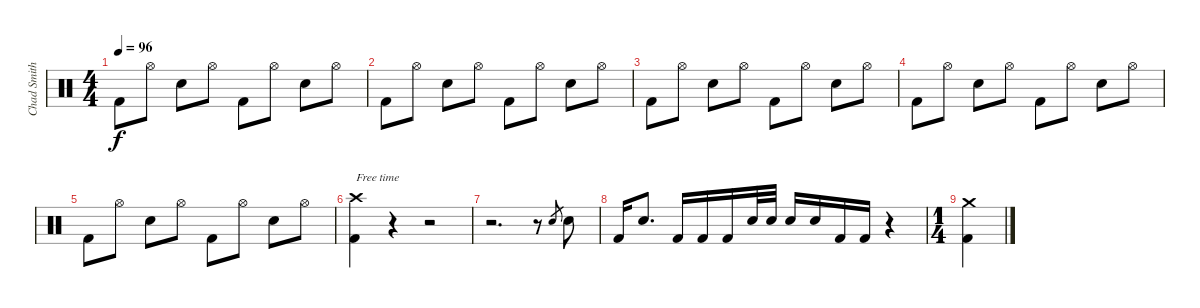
\track ("Chad Smith" "Chad Smith") {instrument percussion}
\staff {score}
\articulation defaults
\ts (4 4)
\tempo 96
\clef neutral
\ks c "Kick (hit) 2".8{dy f} "Hi-Hat (open)".8 "Electric Snare (hit)".8 "Hi-Hat (open)".8 "Kick (hit) 2".8 "Hi-Hat (open)".8 "Electric Snare (hit)".8 "Hi-Hat (open)".8
|
"Kick (hit) 2".8 "Hi-Hat (open)".8 "Electric Snare (hit)".8 "Hi-Hat (open)".8 "Kick (hit) 2".8 "Hi-Hat (open)".8 "Electric Snare (hit)".8 "Hi-Hat (open)".8 |
"Kick (hit) 2".8 "Hi-Hat (open)".8 "Electric Snare (hit)".8 "Hi-Hat (open)".8 "Kick (hit) 2".8 "Hi-Hat (open)".8 "Electric Snare (hit)".8 "Hi-Hat (open)".8 |
"Kick (hit) 2".8 "Hi-Hat (open)".8 "Electric Snare (hit)".8 "Hi-Hat (open)".8 "Kick (hit) 2".8 "Hi-Hat (open)".8 "Electric Snare (hit)".8 "Hi-Hat (open)".8 |
"Kick (hit) 2".8 "Hi-Hat (open)".8 "Electric Snare (hit)".8 "Hi-Hat (open)".8 "Kick (hit) 2".8 "Hi-Hat (open)".8 "Electric Snare (hit)".8 "Hi-Hat (open)".8 |
("Crash high (hit)" "Kick (hit) 2").4{txt "Free time"} r.4 r.2 |
r.2{d} r.8 "Electric Snare (hit)".8{gr} "Electric Snare (hit)".8 |
"Kick (hit) 2".16 "Electric Snare (hit)".8{d} "Kick (hit) 2".16 "Kick (hit) 2".16 "Kick (hit) 2".16 "Electric Snare (hit)".32 "Electric Snare (hit)".32 "Electric Snare (hit)".16 "Electric Snare (hit)".16 "Kick (hit) 2".16 "Kick (hit) 2".16 r.4 |
\ts (1 4)
("Crash medium (hit)" "Kick (hit) 2").4
